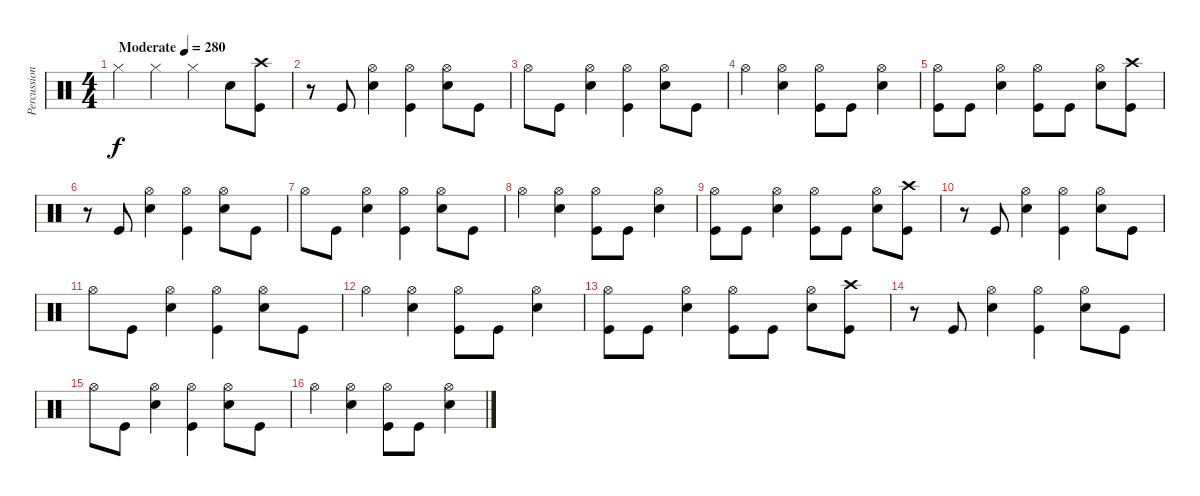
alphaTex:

\track ("Percussion" "Percussion") {instrument percussion}
\staff {score}
\articulation defaults
\ts (4 4)
\tempo (280 "Moderate")
\clef neutral
\ks c "Hi-Hat (closed)".4{dy f} "Hi-Hat (closed)".4 "Hi-Hat (closed)".4 "Snare (hit) 2".8
("Kick (hit)" "Crash high (hit)").8 |
r.8 "Kick (hit)".8 ("Snare (hit) 2" "Hi-Hat (open)").4 ("Kick (hit)" "Hi-Hat (open)").4 ("Snare (hit) 2" "Hi-Hat (open)").8 "Kick (hit)".8 |
"Hi-Hat (open)".8 "Kick (hit)".8 ("Snare (hit) 2" "Hi-Hat (open)").4 ("Kick (hit)" "Hi-Hat (open)").4 ("Snare (hit) 2" "Hi-Hat (open)").8 "Kick (hit)".8 |
"Hi-Hat (open)".4 ("Snare (hit) 2" "Hi-Hat (open)").4 ("Kick (hit)" "Hi-Hat (open)").8 "Kick (hit)".8 ("Hi-Hat (open)" "Snare (hit) 2").4 |
("Kick (hit)" "Hi-Hat (open)").8 "Kick (hit)".8 ("Snare (hit) 2" "Hi-Hat (open)").4 ("Kick (hit)" "Hi-Hat (open)").8 "Kick (hit)".8 ("Hi-Hat (open)" "Snare (hit) 2").8 ("Kick (hit)" "Crash high (hit)").8 |
r.8 "Kick (hit)".8 ("Snare (hit) 2" "Hi-Hat (open)").4 ("Kick (hit)" "Hi-Hat (open)").4 ("Snare (hit) 2" "Hi-Hat (open)").8 "Kick (hit)".8 |
"Hi-Hat (open)".8 "Kick (hit)".8 ("Snare (hit) 2" "Hi-Hat (open)").4 ("Kick (hit)" "Hi-Hat (open)").4 ("Snare (hit) 2" "Hi-Hat (open)").8 "Kick (hit)".8 |
"Hi-Hat (open)".4 ("Snare (hit) 2" "Hi-Hat (open)").4 ("Kick (hit)" "Hi-Hat (open)").8 "Kick (hit)".8 ("Hi-Hat (open)" "Snare (hit) 2").4 |
("Kick (hit)" "Hi-Hat (open)").8 "Kick (hit)".8 ("Snare (hit) 2" "Hi-Hat (open)").4 ("Kick (hit)" "Hi-Hat (open)").8 "Kick (hit)".8 ("Hi-Hat (open)" "Snare (hit) 2").8 ("Kick (hit)" "Crash high (hit)").8 |
r.8 "Kick (hit)".8 ("Snare (hit) 2" "Hi-Hat (open)").4 ("Kick (hit)" "Hi-Hat (open)").4 ("Snare (hit) 2" "Hi-Hat (open)").8 "Kick (hit)".8 |
"Hi-Hat (open)".8 "Kick (hit)".8 ("Snare (hit) 2" "Hi-Hat (open)").4 ("Kick (hit)" "Hi-Hat (open)").4 ("Snare (hit) 2" "Hi-Hat (open)").8 "Kick (hit)".8 |
"Hi-Hat (open)".4 ("Snare (hit) 2" "Hi-Hat (open)").4 ("Kick (hit)" "Hi-Hat (open)").8 "Kick (hit)".8 ("Hi-Hat (open)" "Snare (hit) 2").4 |
("Kick (hit)" "Hi-Hat (open)").8 "Kick (hit)".8 ("Snare (hit) 2" "Hi-Hat (open)").4 ("Kick (hit)" "Hi-Hat (open)").8 "Kick (hit)".8 ("Hi-Hat (open)" "Snare (hit) 2").8 ("Kick (hit)" "Crash high (hit)").8 |
r.8 "Kick (hit)".8 ("Snare (hit) 2" "Hi-Hat (open)").4 ("Kick (hit)" "Hi-Hat (open)").4 ("Snare (hit) 2" "Hi-Hat (open)").8 "Kick (hit)".8 |
"Hi-Hat (open)".8 "Kick (hit)".8 ("Snare (hit) 2" "Hi-Hat (open)").4 ("Kick (hit)" "Hi-Hat (open)").4 ("Snare (hit) 2" "Hi-Hat (open)").8 "Kick (hit)".8 |
"Hi-Hat (open)".4 ("Snare (hit) 2" "Hi-Hat (open)").4 ("Kick (hit)" "Hi-Hat (open)").8 "Kick (hit)".8 ("Hi-Hat (open)" "Snare (hit) 2").4
